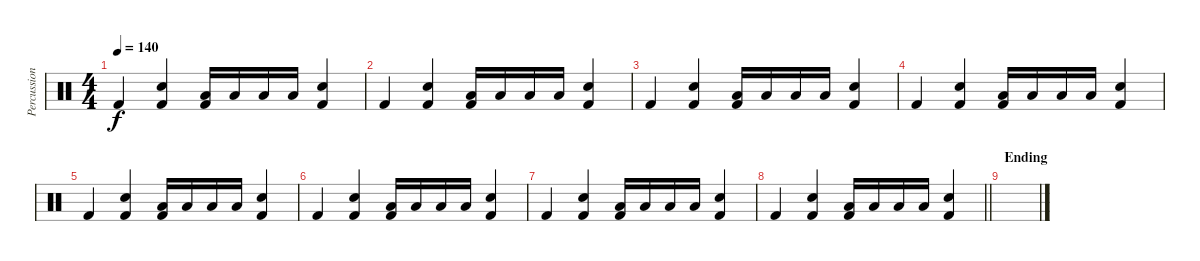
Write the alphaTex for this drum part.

\track ("Percussion" "Percussion") {instrument percussion}
\staff {score}
\articulation defaults
\ts (4 4)
\tempo 140
\clef neutral
\ks c "Kick (hit) 2".4{dy f}
("Snare (hit) 2" "Kick (hit) 2").4 ("Low Tom (hit)" "Kick (hit) 2").16 "Low Tom (hit)".16 "Low Tom (hit)".16 "Low Tom (hit)".16 ("Snare (hit) 2" "Kick (hit) 2").4 |
"Kick (hit) 2".4 ("Snare (hit) 2" "Kick (hit) 2").4 ("Low Tom (hit)" "Kick (hit) 2").16 "Low Tom (hit)".16 "Low Tom (hit)".16 "Low Tom (hit)".16 ("Snare (hit) 2" "Kick (hit) 2").4 |
"Kick (hit) 2".4 ("Snare (hit) 2" "Kick (hit) 2").4 ("Low Tom (hit)" "Kick (hit) 2").16 "Low Tom (hit)".16 "Low Tom (hit)".16 "Low Tom (hit)".16 ("Snare (hit) 2" "Kick (hit) 2").4 |
"Kick (hit) 2".4 ("Snare (hit) 2" "Kick (hit) 2").4 ("Low Tom (hit)" "Kick (hit) 2").16 "Low Tom (hit)".16 "Low Tom (hit)".16 "Low Tom (hit)".16 ("Snare (hit) 2" "Kick (hit) 2").4 |
"Kick (hit) 2".4 ("Snare (hit) 2" "Kick (hit) 2").4 ("Low Tom (hit)" "Kick (hit) 2").16 "Low Tom (hit)".16 "Low Tom (hit)".16 "Low Tom (hit)".16 ("Snare (hit) 2" "Kick (hit) 2").4 |
"Kick (hit) 2".4 ("Snare (hit) 2" "Kick (hit) 2").4 ("Low Tom (hit)" "Kick (hit) 2").16 "Low Tom (hit)".16 "Low Tom (hit)".16 "Low Tom (hit)".16 ("Snare (hit) 2" "Kick (hit) 2").4 |
"Kick (hit) 2".4 ("Snare (hit) 2" "Kick (hit) 2").4 ("Low Tom (hit)" "Kick (hit) 2").16 "Low Tom (hit)".16 "Low Tom (hit)".16 "Low Tom (hit)".16 ("Snare (hit) 2" "Kick (hit) 2").4 |
\barLineRight lightlight "Kick (hit) 2".4
("Snare (hit) 2" "Kick (hit) 2").4 ("Low Tom (hit)" "Kick (hit) 2").16 "Low Tom (hit)".16 "Low Tom (hit)".16 "Low Tom (hit)".16 ("Snare (hit) 2" "Kick (hit) 2").4 |
\section ("" "Ending")
